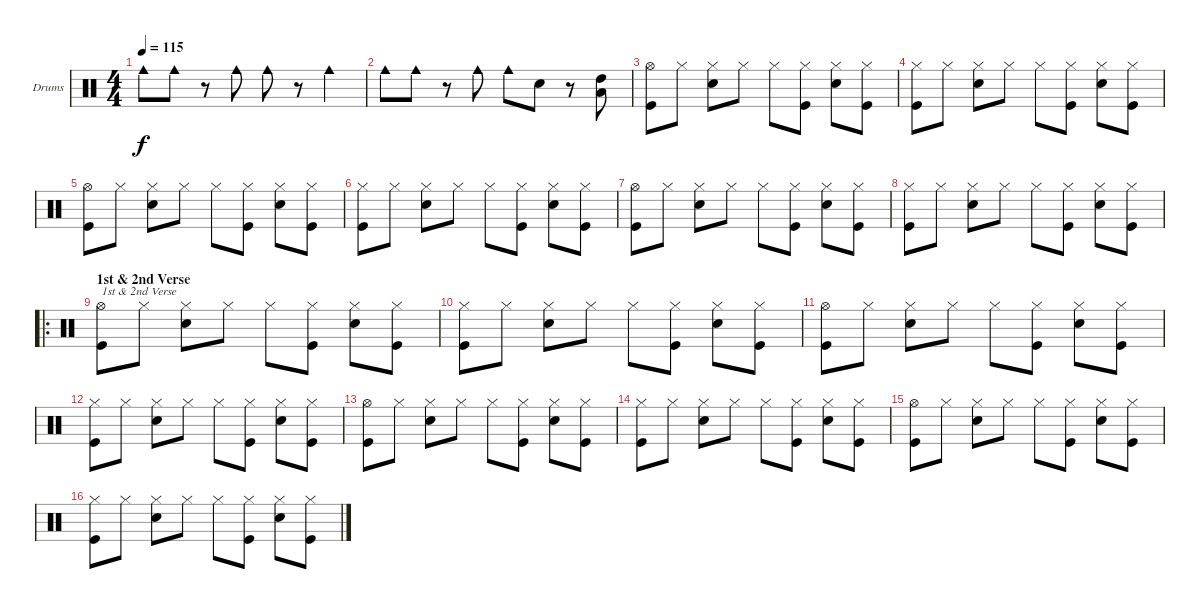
\bracketExtendMode groupsimilarinstruments
\firstSystemTrackNameOrientation horizontal
\otherSystemsTrackNameOrientation horizontal
\track ("Drumkit" "Drums") {instrument percussion}
\staff {score}
\articulation defaults
\ts (4 4)
\beaming (8 2 2 2 2)
\tempo 115
\clef neutral
\ks c "Cowbell medium (hit)".8{dy f} "Cowbell medium (hit)".8
r.8 "Cowbell medium (hit)".8 "Cowbell medium (hit)".8 r.8 "Cowbell medium (hit)".4 |
"Cowbell medium (hit)".8 "Cowbell medium (hit)".8 r.8 "Cowbell medium (hit)".8 "Cowbell medium (hit)".8 "Snare (hit) 2".8 r.8 ("High Tom (hit)" "Low Tom (hit)").8 |
("Hi-Hat (open)" "Kick (hit)").8 "Hi-Hat (closed)".8 ("Hi-Hat (closed)" "Snare (hit) 2").8 "Hi-Hat (closed)".8 "Hi-Hat (closed)".8 ("Hi-Hat (closed)" "Kick (hit)").8 ("Hi-Hat (closed)" "Snare (hit) 2").8 ("Hi-Hat (closed)" "Kick (hit)").8 |
("Hi-Hat (closed)" "Kick (hit)").8 "Hi-Hat (closed)".8 ("Hi-Hat (closed)" "Snare (hit) 2").8 "Hi-Hat (closed)".8 "Hi-Hat (closed)".8 ("Hi-Hat (closed)" "Kick (hit)").8 ("Hi-Hat (closed)" "Snare (hit) 2").8 ("Hi-Hat (closed)" "Kick (hit)").8 |
("Hi-Hat (open)" "Kick (hit)").8 "Hi-Hat (closed)".8 ("Hi-Hat (closed)" "Snare (hit) 2").8 "Hi-Hat (closed)".8 "Hi-Hat (closed)".8 ("Hi-Hat (closed)" "Kick (hit)").8 ("Hi-Hat (closed)" "Snare (hit) 2").8 ("Hi-Hat (closed)" "Kick (hit)").8 |
("Hi-Hat (closed)" "Kick (hit)").8 "Hi-Hat (closed)".8 ("Hi-Hat (closed)" "Snare (hit) 2").8 "Hi-Hat (closed)".8 "Hi-Hat (closed)".8 ("Hi-Hat (closed)" "Kick (hit)").8 ("Hi-Hat (closed)" "Snare (hit) 2").8 ("Hi-Hat (closed)" "Kick (hit)").8 |
("Hi-Hat (open)" "Kick (hit)").8 "Hi-Hat (closed)".8 ("Hi-Hat (closed)" "Snare (hit) 2").8 "Hi-Hat (closed)".8 "Hi-Hat (closed)".8 ("Hi-Hat (closed)" "Kick (hit)").8 ("Hi-Hat (closed)" "Snare (hit) 2").8 ("Hi-Hat (closed)" "Kick (hit)").8 |
("Hi-Hat (closed)" "Kick (hit)").8 "Hi-Hat (closed)".8 ("Hi-Hat (closed)" "Snare (hit) 2").8 "Hi-Hat (closed)".8 "Hi-Hat (closed)".8 ("Hi-Hat (closed)" "Kick (hit)").8 ("Hi-Hat (closed)" "Snare (hit) 2").8 ("Hi-Hat (closed)" "Kick (hit)").8 |
\ro
\section ("" "1st & 2nd Verse")
("Hi-Hat (open)" "Kick (hit)").8{txt "1st & 2nd Verse"} "Hi-Hat (closed)".8 ("Hi-Hat (closed)" "Snare (hit) 2").8 "Hi-Hat (closed)".8 "Hi-Hat (closed)".8 ("Hi-Hat (closed)" "Kick (hit)").8 ("Hi-Hat (closed)" "Snare (hit) 2").8 ("Hi-Hat (closed)" "Kick (hit)").8 |
("Hi-Hat (closed)" "Kick (hit)").8 "Hi-Hat (closed)".8 ("Hi-Hat (closed)" "Snare (hit) 2").8 "Hi-Hat (closed)".8 "Hi-Hat (closed)".8 ("Hi-Hat (closed)" "Kick (hit)").8 ("Hi-Hat (closed)" "Snare (hit) 2").8 ("Hi-Hat (closed)" "Kick (hit)").8 |
("Hi-Hat (open)" "Kick (hit)").8 "Hi-Hat (closed)".8 ("Hi-Hat (closed)" "Snare (hit) 2").8 "Hi-Hat (closed)".8 "Hi-Hat (closed)".8 ("Hi-Hat (closed)" "Kick (hit)").8 ("Hi-Hat (closed)" "Snare (hit) 2").8 ("Hi-Hat (closed)" "Kick (hit)").8 |
("Hi-Hat (closed)" "Kick (hit)").8 "Hi-Hat (closed)".8 ("Hi-Hat (closed)" "Snare (hit) 2").8 "Hi-Hat (closed)".8 "Hi-Hat (closed)".8 ("Hi-Hat (closed)" "Kick (hit)").8 ("Hi-Hat (closed)" "Snare (hit) 2").8 ("Hi-Hat (closed)" "Kick (hit)").8 |
("Hi-Hat (open)" "Kick (hit)").8 "Hi-Hat (closed)".8 ("Hi-Hat (closed)" "Snare (hit) 2").8 "Hi-Hat (closed)".8 "Hi-Hat (closed)".8 ("Hi-Hat (closed)" "Kick (hit)").8 ("Hi-Hat (closed)" "Snare (hit) 2").8 ("Hi-Hat (closed)" "Kick (hit)").8 |
("Hi-Hat (closed)" "Kick (hit)").8 "Hi-Hat (closed)".8 ("Hi-Hat (closed)" "Snare (hit) 2").8 "Hi-Hat (closed)".8 "Hi-Hat (closed)".8 ("Hi-Hat (closed)" "Kick (hit)").8 ("Hi-Hat (closed)" "Snare (hit) 2").8 ("Hi-Hat (closed)" "Kick (hit)").8 |
("Hi-Hat (open)" "Kick (hit)").8 "Hi-Hat (closed)".8 ("Hi-Hat (closed)" "Snare (hit) 2").8 "Hi-Hat (closed)".8 "Hi-Hat (closed)".8 ("Hi-Hat (closed)" "Kick (hit)").8 ("Hi-Hat (closed)" "Snare (hit) 2").8 ("Hi-Hat (closed)" "Kick (hit)").8 |
("Hi-Hat (closed)" "Kick (hit)").8 "Hi-Hat (closed)".8 ("Hi-Hat (closed)" "Snare (hit) 2").8 "Hi-Hat (closed)".8 "Hi-Hat (closed)".8 ("Hi-Hat (closed)" "Kick (hit)").8 ("Hi-Hat (closed)" "Snare (hit) 2").8 ("Hi-Hat (closed)" "Kick (hit)").8
